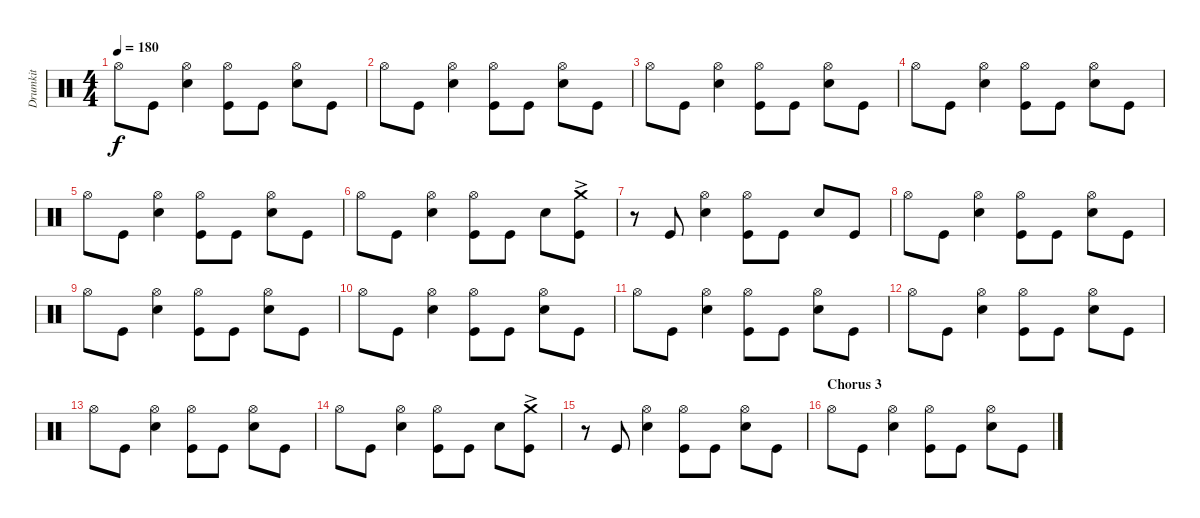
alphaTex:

\track ("Drumkit" "Drumkit") {instrument percussion}
\staff {score}
\articulation defaults
\ts (4 4)
\tempo 180
\clef neutral
\ks c "Hi-Hat (open)".8{dy f} "Kick (hit)".8
("Hi-Hat (open)" "Snare (hit) 2").4 ("Hi-Hat (open)" "Kick (hit)").8 "Kick (hit)".8 ("Hi-Hat (open)" "Snare (hit) 2").8 "Kick (hit)".8 |
"Hi-Hat (open)".8 "Kick (hit)".8 ("Hi-Hat (open)" "Snare (hit) 2").4 ("Hi-Hat (open)" "Kick (hit)").8 "Kick (hit)".8 ("Hi-Hat (open)" "Snare (hit) 2").8 "Kick (hit)".8 |
"Hi-Hat (open)".8 "Kick (hit)".8 ("Hi-Hat (open)" "Snare (hit) 2").4 ("Hi-Hat (open)" "Kick (hit)").8 "Kick (hit)".8 ("Hi-Hat (open)" "Snare (hit) 2").8 "Kick (hit)".8 |
"Hi-Hat (open)".8 "Kick (hit)".8 ("Hi-Hat (open)" "Snare (hit) 2").4 ("Hi-Hat (open)" "Kick (hit)").8 "Kick (hit)".8 ("Hi-Hat (open)" "Snare (hit) 2").8 "Kick (hit)".8 |
"Hi-Hat (open)".8 "Kick (hit)".8 ("Hi-Hat (open)" "Snare (hit) 2").4 ("Hi-Hat (open)" "Kick (hit)").8 "Kick (hit)".8 ("Hi-Hat (open)" "Snare (hit) 2").8 "Kick (hit)".8 |
"Hi-Hat (open)".8 "Kick (hit)".8 ("Hi-Hat (open)" "Snare (hit) 2").4 ("Hi-Hat (open)" "Kick (hit)").8 "Kick (hit)".8 "Snare (hit) 2".8 ("Crash medium (hit)"{ac} "Kick (hit)").8 |
r.8 "Kick (hit)".8 ("Hi-Hat (open)" "Snare (hit) 2").4 ("Hi-Hat (open)" "Kick (hit)").8 "Kick (hit)".8 "Snare (hit) 2".8 "Kick (hit)".8 |
"Hi-Hat (open)".8 "Kick (hit)".8 ("Hi-Hat (open)" "Snare (hit) 2").4 ("Hi-Hat (open)" "Kick (hit)").8 "Kick (hit)".8 ("Hi-Hat (open)" "Snare (hit) 2").8 "Kick (hit)".8 |
"Hi-Hat (open)".8 "Kick (hit)".8 ("Hi-Hat (open)" "Snare (hit) 2").4 ("Hi-Hat (open)" "Kick (hit)").8 "Kick (hit)".8 ("Hi-Hat (open)" "Snare (hit) 2").8 "Kick (hit)".8 |
"Hi-Hat (open)".8 "Kick (hit)".8 ("Hi-Hat (open)" "Snare (hit) 2").4 ("Hi-Hat (open)" "Kick (hit)").8 "Kick (hit)".8 ("Hi-Hat (open)" "Snare (hit) 2").8 "Kick (hit)".8 |
"Hi-Hat (open)".8 "Kick (hit)".8 ("Hi-Hat (open)" "Snare (hit) 2").4 ("Hi-Hat (open)" "Kick (hit)").8 "Kick (hit)".8 ("Hi-Hat (open)" "Snare (hit) 2").8 "Kick (hit)".8 |
"Hi-Hat (open)".8 "Kick (hit)".8 ("Hi-Hat (open)" "Snare (hit) 2").4 ("Hi-Hat (open)" "Kick (hit)").8 "Kick (hit)".8 ("Hi-Hat (open)" "Snare (hit) 2").8 "Kick (hit)".8 |
"Hi-Hat (open)".8 "Kick (hit)".8 ("Hi-Hat (open)" "Snare (hit) 2").4 ("Hi-Hat (open)" "Kick (hit)").8 "Kick (hit)".8 ("Hi-Hat (open)" "Snare (hit) 2").8 "Kick (hit)".8 |
"Hi-Hat (open)".8 "Kick (hit)".8 ("Hi-Hat (open)" "Snare (hit) 2").4 ("Hi-Hat (open)" "Kick (hit)").8 "Kick (hit)".8 "Snare (hit) 2".8 ("Crash medium (hit)"{ac} "Kick (hit)").8 |
r.8 "Kick (hit)".8 ("Hi-Hat (open)" "Snare (hit) 2").4 ("Hi-Hat (open)" "Kick (hit)").8 "Kick (hit)".8 ("Hi-Hat (open)" "Snare (hit) 2").8 "Kick (hit)".8 |
\section ("" "Chorus 3")
"Hi-Hat (open)".8 "Kick (hit)".8 ("Hi-Hat (open)" "Snare (hit) 2").4 ("Hi-Hat (open)" "Kick (hit)").8 "Kick (hit)".8 ("Hi-Hat (open)" "Snare (hit) 2").8 "Kick (hit)".8
